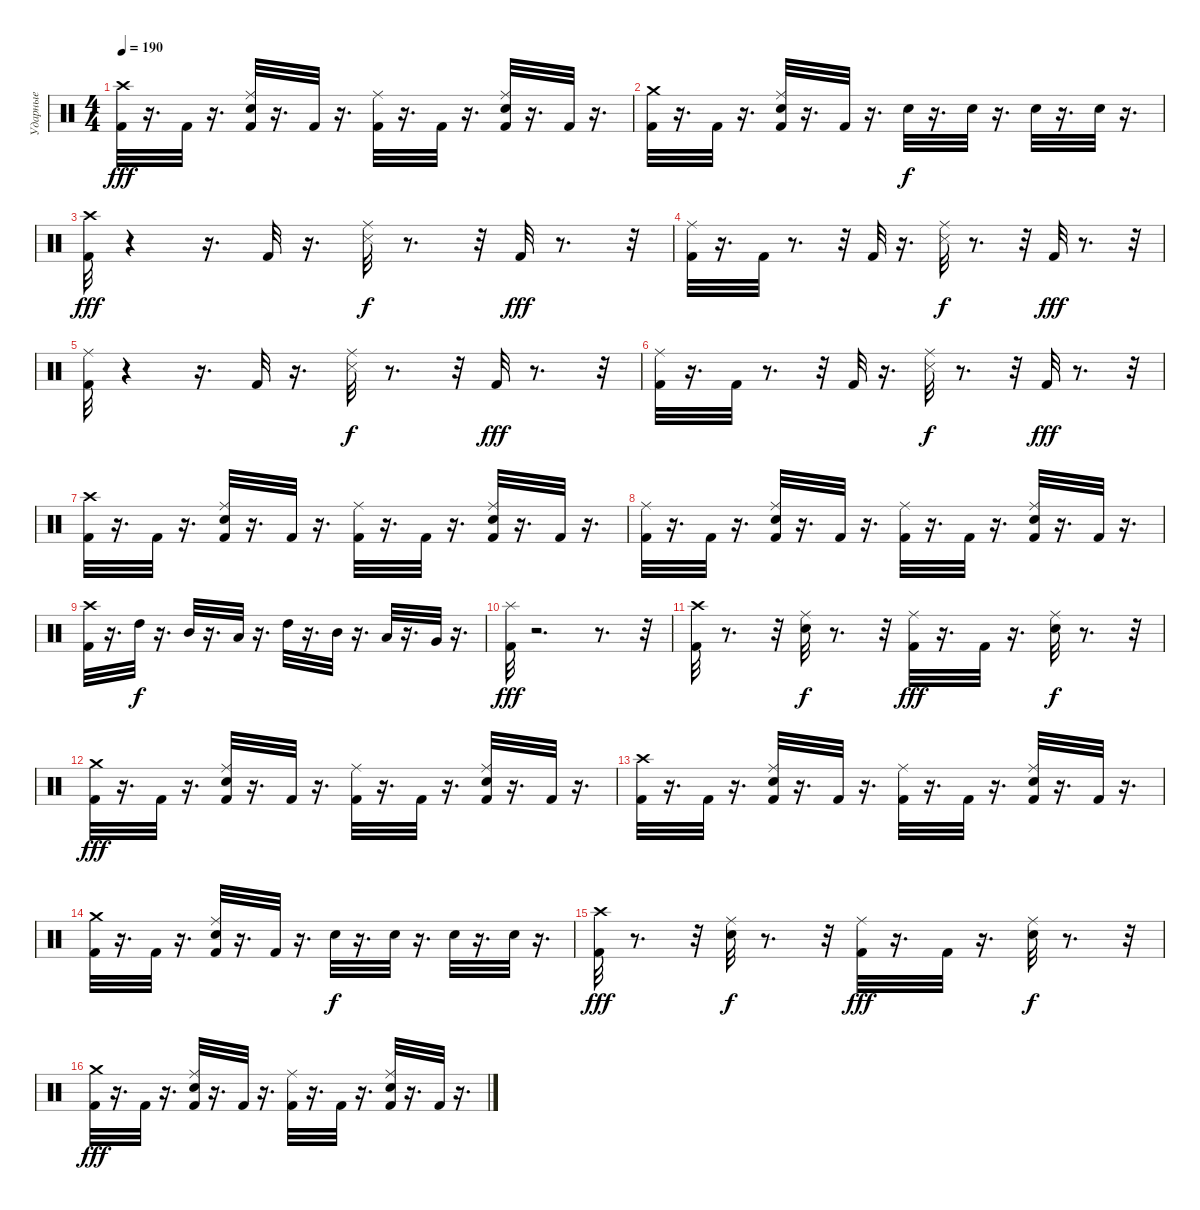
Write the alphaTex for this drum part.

\track ("Ударные" "Ударные") {instrument percussion}
\staff {score}
\articulation defaults
\ts (4 4)
\tempo 190
\clef neutral
\ks c
("Crash high (hit)" "Kick (hit) 2").32{dy fff} r.16{d} "Kick (hit) 2".32 r.16{d} ("Ride (middle)" "Snare (hit) 2" "Kick (hit) 2").32 r.16{d} "Kick (hit) 2".32 r.16{d} ("Ride (middle)" "Kick (hit) 2").32 r.16{d} "Kick (hit) 2".32 r.16{d} ("Kick (hit) 2" "Ride (middle)" "Snare (hit) 2").32 r.16{d} "Kick (hit) 2".32 r.16{d} |
("Crash medium (hit)" "Kick (hit) 2").32 r.16{d} "Kick (hit) 2".32 r.16{d} ("Ride (middle)" "Kick (hit) 2" "Snare (hit) 2").32 r.16{d} "Kick (hit) 2".32 r.16{d} "Snare (hit) 2".32{dy f} r.16{d} "Snare (hit) 2".32 r.16{d} "Snare (hit) 2".32 r.16{d} "Snare (hit) 2".32 r.16{d} |
("Crash high (hit)" "Kick (hit) 2").32{dy fff} r.4 r.16{d} "Kick (hit) 2".32 r.16{d} ("Ride (middle)" "Snare (side stick) 3").32{dy f} r.8{d} r.32 "Kick (hit) 2".32{dy fff} r.8{d} r.32 |
("Ride (middle)" "Kick (hit) 2").32 r.16{d} "Kick (hit) 2".32 r.8{d} r.32 "Kick (hit) 2".32 r.16{d} ("Ride (middle)" "Snare (side stick) 3").32{dy f} r.8{d} r.32 "Kick (hit) 2".32{dy fff} r.8{d} r.32 |
("Ride (middle)" "Kick (hit) 2").32 r.4 r.16{d} "Kick (hit) 2".32 r.16{d} ("Ride (middle)" "Snare (side stick) 3").32{dy f} r.8{d} r.32 "Kick (hit) 2".32{dy fff} r.8{d} r.32 |
("Ride (middle)" "Kick (hit) 2").32 r.16{d} "Kick (hit) 2".32 r.8{d} r.32 "Kick (hit) 2".32 r.16{d} ("Ride (middle)" "Snare (side stick) 3").32{dy f} r.8{d} r.32 "Kick (hit) 2".32{dy fff} r.8{d} r.32 |
("Crash high (hit)" "Kick (hit) 2").32 r.16{d} "Kick (hit) 2".32 r.16{d} ("Kick (hit) 2" "Ride (middle)" "Snare (hit) 2").32 r.16{d} "Kick (hit) 2".32 r.16{d} ("Ride (middle)" "Kick (hit) 2").32 r.16{d} "Kick (hit) 2".32 r.16{d} ("Kick (hit) 2" "Ride (middle)" "Snare (hit) 2").32 r.16{d} "Kick (hit) 2".32 r.16{d} |
("Ride (middle)" "Kick (hit) 2").32 r.16{d} "Kick (hit) 2".32 r.16{d} ("Ride (middle)" "Kick (hit) 2" "Snare (hit) 2").32 r.16{d} "Kick (hit) 2".32 r.16{d} ("Ride (middle)" "Kick (hit) 2").32 r.16{d} "Kick (hit) 2".32 r.16{d} ("Ride (middle)" "Kick (hit) 2" "Snare (hit) 2").32 r.16{d} "Kick (hit) 2".32 r.16{d} |
("Kick (hit) 2" "Crash high (hit)").32 r.16{d} "High Tom (hit)".32{dy f} r.16{d} "Mid Tom (hit)".32 r.16{d} "Low Tom (hit)".32 r.16{d} "High Tom (hit)".32 r.16{d} "Mid Tom (hit)".32 r.16{d} "Low Tom (hit)".32 r.16{d} "Very Low Tom (hit)".32 r.16{d} |
("Splash (hit)" "Kick (hit) 2").32{dy fff} r.2{d} r.8{d} r.32 |
("Kick (hit) 2" "Crash high (hit)").32 r.8{d} r.32 ("Ride (middle)" "Snare (hit) 2").32{dy f} r.8{d} r.32 ("Kick (hit) 2" "Ride (middle)").32{dy fff} r.16{d} "Kick (hit) 2".32 r.16{d} ("Ride (middle)" "Snare (hit) 2").32{dy f} r.8{d} r.32 |
("Crash medium (hit)" "Kick (hit) 2").32{dy fff} r.16{d} "Kick (hit) 2".32 r.16{d} ("Ride (middle)" "Snare (hit) 2" "Kick (hit) 2").32 r.16{d} "Kick (hit) 2".32 r.16{d} ("Ride (middle)" "Kick (hit) 2").32 r.16{d} "Kick (hit) 2".32 r.16{d} ("Ride (middle)" "Snare (hit) 2" "Kick (hit) 2").32 r.16{d} "Kick (hit) 2".32 r.16{d} |
("Crash high (hit)" "Kick (hit) 2").32 r.16{d} "Kick (hit) 2".32 r.16{d} ("Ride (middle)" "Snare (hit) 2" "Kick (hit) 2").32 r.16{d} "Kick (hit) 2".32 r.16{d} ("Ride (middle)" "Kick (hit) 2").32 r.16{d} "Kick (hit) 2".32 r.16{d} ("Kick (hit) 2" "Ride (middle)" "Snare (hit) 2").32 r.16{d} "Kick (hit) 2".32 r.16{d} |
("Crash medium (hit)" "Kick (hit) 2").32 r.16{d} "Kick (hit) 2".32 r.16{d} ("Ride (middle)" "Kick (hit) 2" "Snare (hit) 2").32 r.16{d} "Kick (hit) 2".32 r.16{d} "Snare (hit) 2".32{dy f} r.16{d} "Snare (hit) 2".32 r.16{d} "Snare (hit) 2".32 r.16{d} "Snare (hit) 2".32 r.16{d} |
("Kick (hit) 2" "Crash high (hit)").32{dy fff} r.8{d} r.32 ("Ride (middle)" "Snare (hit) 2").32{dy f} r.8{d} r.32 ("Kick (hit) 2" "Ride (middle)").32{dy fff} r.16{d} "Kick (hit) 2".32 r.16{d} ("Ride (middle)" "Snare (hit) 2").32{dy f} r.8{d} r.32 |
("Crash medium (hit)" "Kick (hit) 2").32{dy fff} r.16{d} "Kick (hit) 2".32 r.16{d} ("Ride (middle)" "Snare (hit) 2" "Kick (hit) 2").32 r.16{d} "Kick (hit) 2".32 r.16{d} ("Ride (middle)" "Kick (hit) 2").32 r.16{d} "Kick (hit) 2".32 r.16{d} ("Ride (middle)" "Snare (hit) 2" "Kick (hit) 2").32 r.16{d} "Kick (hit) 2".32 r.16{d}
